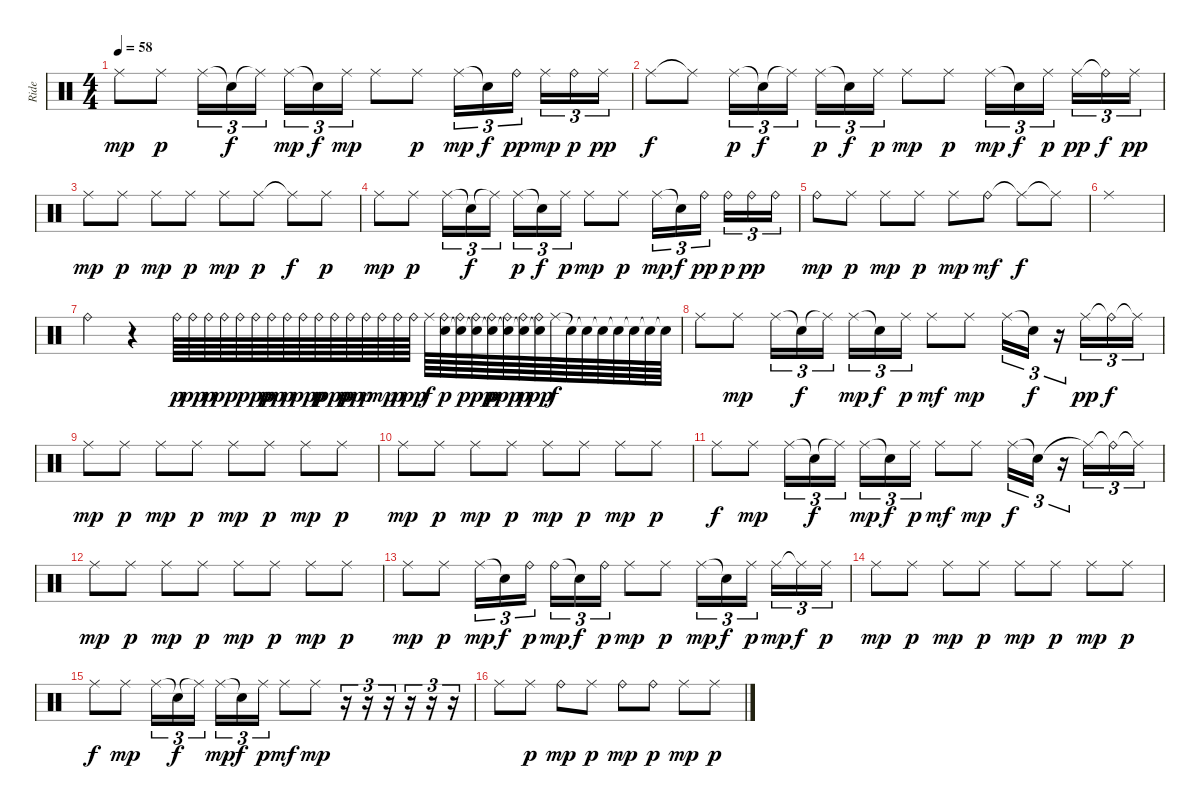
\track ("Ride" "Ride") {instrument percussion}
\staff {score}
\articulation defaults
\ts (4 4)
\tempo 58
\clef neutral
\ks c "Ride (middle)".8{dy mp} "Ride (middle)".8{dy p} "Ride (middle)".16{tu (3 2)} "Snare (hit)"{t}.16{tu (3 2) dy f} "Ride (middle)"{t}.16{tu (3 2)} "Ride (middle)".16{tu (3 2) dy mp} "Snare (hit)"{t}.16{tu (3 2) dy f} "Ride (middle)".16{tu (3 2) dy mp} "Ride (middle)".8 "Ride (middle)".8{dy p} "Ride (middle)".16{tu (3 2) dy mp} "Snare (hit)"{t}.16{tu (3 2) dy f} "Ride (bell)".16{tu (3 2) dy pp} "Ride (middle)".16{tu (3 2) dy mp} "Ride (bell)".16{tu (3 2) dy p} "Ride (middle)".16{tu (3 2) dy pp}
|
"Ride (middle)".8{dy f} "Ride (middle)"{t}.8 "Ride (middle)".16{tu (3 2) dy p} "Snare (hit)"{t}.16{tu (3 2) dy f} "Ride (middle)"{t}.16{tu (3 2)} "Ride (middle)".16{tu (3 2) dy p} "Snare (hit)"{t}.16{tu (3 2) dy f} "Ride (middle)".16{tu (3 2) dy p} "Ride (middle)".8{dy mp} "Ride (middle)".8{dy p} "Ride (middle)".16{tu (3 2) dy mp} "Snare (hit)"{t}.16{tu (3 2) dy f} "Ride (middle)".16{tu (3 2) dy p} "Ride (middle)".16{tu (3 2) dy pp} "Ride (bell)"{t}.16{tu (3 2) dy f} "Ride (middle)".16{tu (3 2) dy pp} |
"Ride (middle)".8{dy mp} "Ride (middle)".8{dy p} "Ride (middle)".8{dy mp} "Ride (middle)".8{dy p} "Ride (middle)".8{dy mp} "Ride (middle)".8{dy p} "Ride (middle)"{t}.8{dy f} "Ride (middle)".8{dy p} |
"Ride (middle)".8{dy mp} "Ride (middle)".8{dy p} "Ride (middle)".16{tu (3 2)} "Snare (hit)"{t}.16{tu (3 2) dy f} "Ride (middle)"{t}.16{tu (3 2)} "Ride (middle)".16{tu (3 2) dy p} "Snare (hit)"{t}.16{tu (3 2) dy f} "Ride (middle)".16{tu (3 2) dy p} "Ride (middle)".8{dy mp} "Ride (middle)".8{dy p} "Ride (middle)".16{tu (3 2) dy mp} "Snare (hit)"{t}.16{tu (3 2) dy f} "Ride (bell)".16{tu (3 2) dy pp} "Ride (bell)".16{tu (3 2) dy p} "Ride (bell)".16{tu (3 2) dy pp} "Ride (bell)".16{tu (3 2)} |
"Ride (bell)".8{dy mp} "Ride (middle)".8{dy p} "Ride (middle)".8{dy mp} "Ride (middle)".8{dy p} "Ride (middle)".8{dy mp} "Ride (bell)".8{dy mf} "Ride (middle)"{t}.8{dy f} "Ride (middle)"{t}.8 |
"Ride (middle)".1 |
"Ride (bell)".4 r.4 "Ride (bell)".64{dy p} "Ride (bell)".64{dy pp} "Ride (bell)".64{dy p} "Ride (bell)".64{dy pp} "Ride (bell)".64 "Ride (bell)".64{dy ppp} "Ride (bell)".64{dy pp} "Ride (bell)".64{dy p} "Ride (bell)".64{dy pp} "Ride (bell)".64{dy p} "Ride (bell)".64{dy ppp} "Ride (bell)".64{dy pp} "Ride (bell)".64{dy p} "Ride (bell)".64{dy mp} "Ride (bell)".64{dy p} "Ride (bell)".64{dy pp} "Ride (middle)".64{dy f} ("Ride (bell)" "Snare (hit)").64{dy p} ("Ride (bell)" "Snare (hit)"{t}).64 ("Ride (bell)" "Snare (hit)"{t}).64{dy ppp} ("Ride (bell)" "Snare (hit)"{t}).64{dy p} ("Ride (bell)" "Snare (hit)"{t}).64{dy pp} ("Ride (bell)" "Snare (hit)"{t}).64{dy p} ("Ride (bell)" "Snare (hit)"{t}).64{dy pp} "Ride (middle)".64{dy f} "Snare (hit)"{t}.64 "Snare (hit)"{t}.64 "Snare (hit)"{t}.64 "Snare (hit)"{t}.64 "Snare (hit)"{t}.64 "Snare (hit)"{t}.64 "Snare (hit)"{t}.64 |
"Ride (middle)".8 "Ride (middle)".8{dy mp} "Ride (middle)".16{tu (3 2)} "Snare (hit)"{t}.16{tu (3 2) dy f} "Ride (middle)"{t}.16{tu (3 2)} "Ride (middle)".16{tu (3 2) dy mp} "Snare (hit)"{t}.16{tu (3 2) dy f} "Ride (middle)".16{tu (3 2) dy p} "Ride (middle)".8{dy mf} "Ride (middle)".8{dy mp} "Ride (middle)".16{tu (3 2)} "Snare (hit)"{t}.16{tu (3 2) dy f} r.16{tu (3 2)} "Ride (middle)".16{tu (3 2) dy pp} "Ride (bell)"{t}.16{tu (3 2) dy f} "Ride (middle)"{t}.16{tu (3 2)} |
"Ride (middle)".8{dy mp} "Ride (middle)".8{dy p} "Ride (middle)".8{dy mp} "Ride (middle)".8{dy p} "Ride (middle)".8{dy mp} "Ride (middle)".8{dy p} "Ride (middle)".8{dy mp} "Ride (middle)".8{dy p} |
"Ride (middle)".8{dy mp} "Ride (middle)".8{dy p} "Ride (middle)".8{dy mp} "Ride (middle)".8{dy p} "Ride (middle)".8{dy mp} "Ride (middle)".8{dy p} "Ride (middle)".8{dy mp} "Ride (middle)".8{dy p} |
"Ride (middle)".8{dy f} "Ride (middle)".8{dy mp} "Ride (middle)".16{tu (3 2)} "Snare (hit)"{t}.16{tu (3 2) dy f} "Ride (middle)"{t}.16{tu (3 2)} "Ride (middle)".16{tu (3 2) dy mp} "Snare (hit)"{t}.16{tu (3 2) dy f} "Ride (middle)".16{tu (3 2) dy p} "Ride (middle)".8{dy mf} "Ride (middle)".8{dy mp} "Ride (middle)".16{tu (3 2) dy f} "Snare (hit)"{t}.16{tu (3 2)} r.16{tu (3 2)} "Ride (middle)"{t}.16{tu (3 2)} "Ride (bell)"{t}.16{tu (3 2)} "Ride (middle)"{t}.16{tu (3 2)} |
"Ride (middle)".8{dy mp} "Ride (middle)".8{dy p} "Ride (middle)".8{dy mp} "Ride (middle)".8{dy p} "Ride (middle)".8{dy mp} "Ride (middle)".8{dy p} "Ride (middle)".8{dy mp} "Ride (middle)".8{dy p} |
"Ride (middle)".8{dy mp} "Ride (middle)".8{dy p} "Ride (middle)".16{tu (3 2) dy mp} "Snare (hit)"{t}.16{tu (3 2) dy f} "Ride (bell)".16{tu (3 2) dy p} "Ride (bell)".16{tu (3 2) dy mp} "Snare (hit)"{t}.16{tu (3 2) dy f} "Ride (bell)".16{tu (3 2) dy p} "Ride (middle)".8{dy mp} "Ride (middle)".8{dy p} "Ride (middle)".16{tu (3 2) dy mp} "Snare (hit)"{t}.16{tu (3 2) dy f} "Ride (middle)".16{tu (3 2) dy p} "Ride (middle)".16{tu (3 2) dy mp} "Ride (middle)"{t}.16{tu (3 2) dy f} "Ride (middle)".16{tu (3 2) dy p} |
"Ride (middle)".8{dy mp} "Ride (middle)".8{dy p} "Ride (middle)".8{dy mp} "Ride (middle)".8{dy p} "Ride (middle)".8{dy mp} "Ride (middle)".8{dy p} "Ride (middle)".8{dy mp} "Ride (middle)".8{dy p} |
"Ride (middle)".8{dy f} "Ride (middle)".8{dy mp} "Ride (middle)".16{tu (3 2)} "Snare (hit)"{t}.16{tu (3 2) dy f} "Ride (middle)"{t}.16{tu (3 2)} "Ride (middle)".16{tu (3 2) dy mp} "Snare (hit)"{t}.16{tu (3 2) dy f} "Ride (middle)".16{tu (3 2) dy p} "Ride (middle)".8{dy mf} "Ride (middle)".8{dy mp} r.16{tu (3 2)} r.16{tu (3 2)} r.16{tu (3 2)} r.16{tu (3 2)} r.16{tu (3 2)} r.16{tu (3 2)} |
"Ride (middle)".8 "Ride (middle)".8{dy p} "Ride (bell)".8{dy mp} "Ride (middle)".8{dy p} "Ride (bell)".8{dy mp} "Ride (bell)".8{dy p} "Ride (middle)".8{dy mp} "Ride (middle)".8{dy p}
